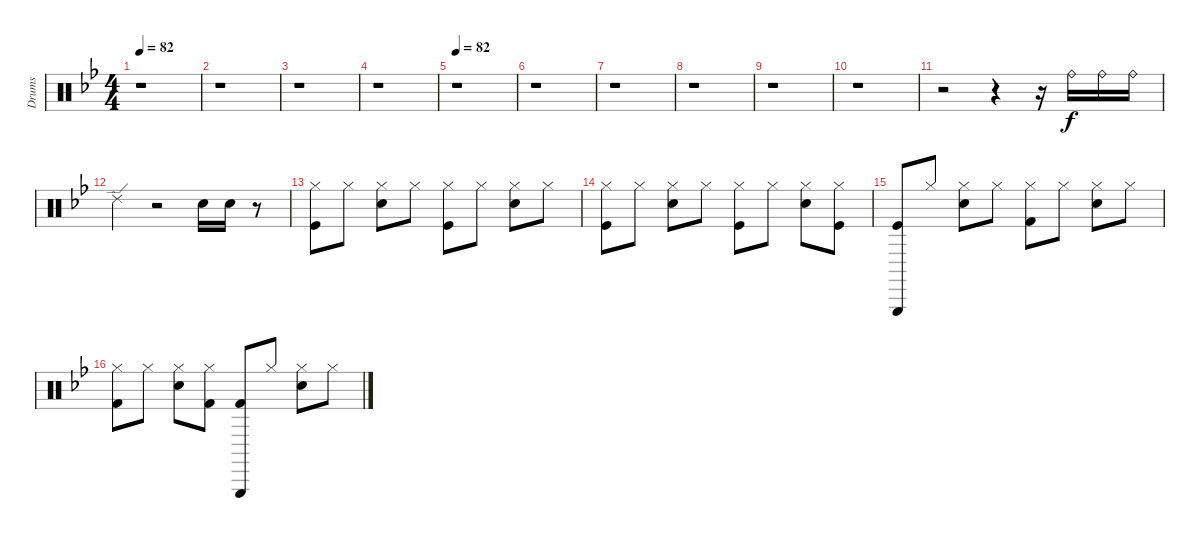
\track ("Drums" "Drums") {instrument percussion}
\staff {score}
\articulation defaults
\ts (4 4)
\tempo 82
\tempo 70
\tempo 82
\clef neutral
\ks bb
r.1{dy f} |
r.1 |
r.1 |
r.1 |
\tempo 82
r.1 |
r.1 |
r.1 |
r.1 |
r.1 |
r.1 |
r.2 r.4 r.16 "Ride (bell)".16 "Ride (bell)".16 "Ride (bell)".16 |
"Ride (edge) 2".4 r.2 "Snare (hit) 2".16 "Snare (hit) 2".16 r.8 |
("Hi-Hat (closed)" "Kick (hit)").8 "Hi-Hat (closed)".8 ("Hi-Hat (closed)" "Snare (hit) 2").8 "Hi-Hat (closed)".8 ("Hi-Hat (closed)" "Kick (hit)").8 "Hi-Hat (closed)".8 ("Hi-Hat (closed)" "Snare (hit) 2").8 "Hi-Hat (closed)".8 |
("Hi-Hat (closed)" "Kick (hit)").8 "Hi-Hat (closed)".8 ("Hi-Hat (closed)" "Snare (hit) 2").8 "Hi-Hat (closed)".8 ("Hi-Hat (closed)" "Kick (hit)").8 "Hi-Hat (closed)".8 ("Hi-Hat (closed)" "Snare (hit) 2").8 ("Hi-Hat (closed)" "Kick (hit)").8 |
("Triangle (hit)" "Kick (hit)").8 "Hi-Hat (closed)".8 ("Hi-Hat (closed)" "Snare (hit) 2").8 "Hi-Hat (closed)".8 ("Hi-Hat (closed)" "Kick (hit) 2").8 "Hi-Hat (closed)".8 ("Hi-Hat (closed)" "Snare (hit) 2").8 "Hi-Hat (closed)".8 |
("Hi-Hat (closed)" "Kick (hit) 2").8 "Hi-Hat (closed)".8 ("Hi-Hat (closed)" "Snare (hit) 2").8 ("Hi-Hat (closed)" "Kick (hit) 2").8 ("Triangle (hit)" "Kick (hit) 2").8 "Hi-Hat (closed)".8 ("Hi-Hat (closed)" "Snare (hit) 2").8 "Hi-Hat (closed)".8
